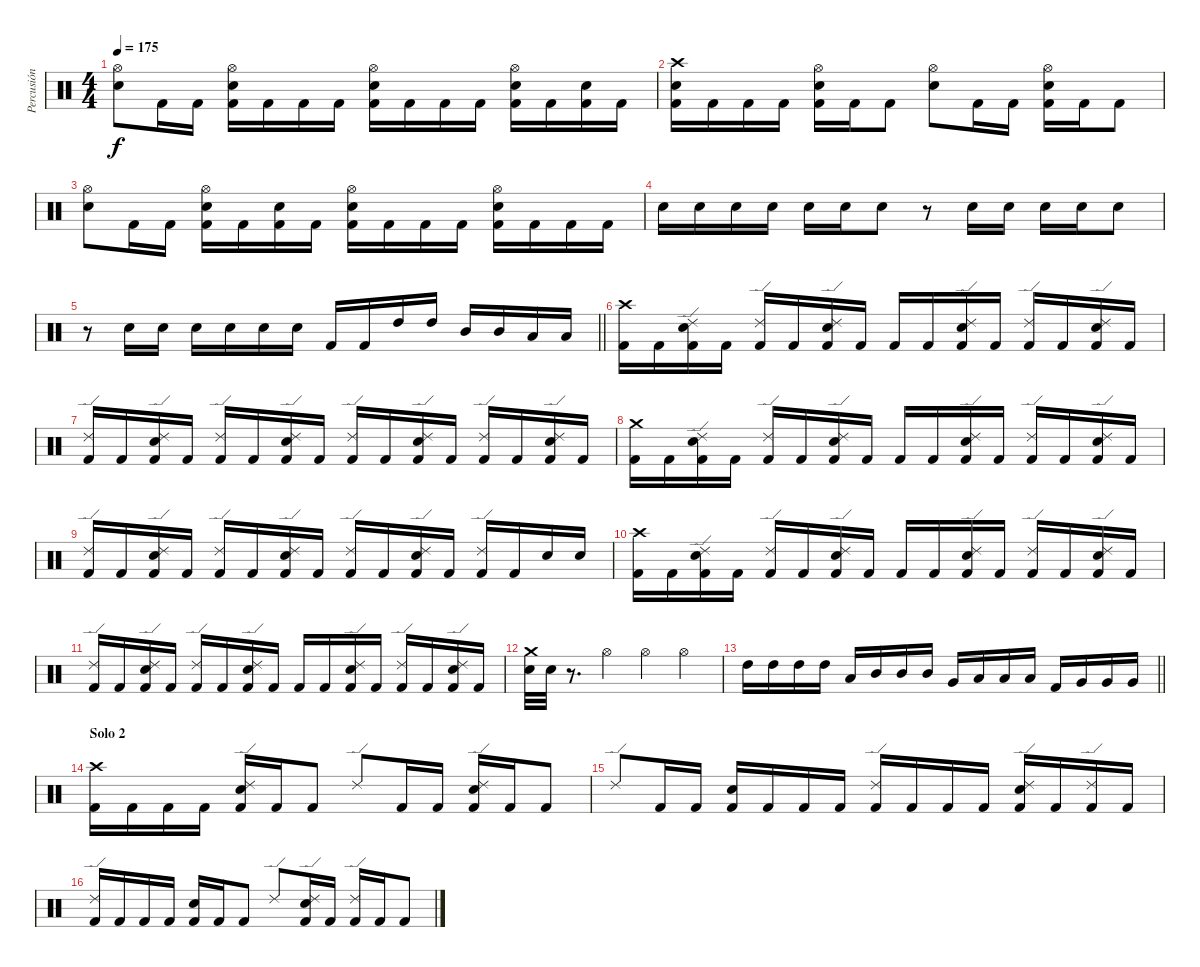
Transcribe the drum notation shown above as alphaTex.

\track ("Percusión" "Percusión") {instrument percussion}
\staff {score}
\articulation defaults
\ts (4 4)
\tempo 175
\clef neutral
\ks c
("Hi-Hat (open)" "Snare (hit) 2").8{dy f} "Kick (hit) 2".16 "Kick (hit) 2".16 ("Hi-Hat (open)" "Snare (hit) 2" "Kick (hit) 2").16 "Kick (hit) 2".16 "Kick (hit) 2".16 "Kick (hit) 2".16 ("Hi-Hat (open)" "Snare (hit) 2" "Kick (hit) 2").16 "Kick (hit) 2".16 "Kick (hit) 2".16 "Kick (hit) 2".16 ("Hi-Hat (open)" "Snare (hit) 2" "Kick (hit) 2").16 "Kick (hit) 2".16 ("Snare (hit) 2" "Kick (hit) 2").16 "Kick (hit) 2".16 |
("Crash high (hit)" "Snare (hit) 2" "Kick (hit) 2").16 "Kick (hit) 2".16 "Kick (hit) 2".16 "Kick (hit) 2".16 ("Hi-Hat (open)" "Snare (hit) 2" "Kick (hit) 2").16 "Kick (hit) 2".16 "Kick (hit) 2".8 ("Hi-Hat (open)" "Snare (hit) 2").8 "Kick (hit) 2".16 "Kick (hit) 2".16 ("Hi-Hat (open)" "Snare (hit) 2" "Kick (hit) 2").16 "Kick (hit) 2".16 "Kick (hit) 2".8 |
("Hi-Hat (open)" "Snare (hit) 2").8 "Kick (hit) 2".16 "Kick (hit) 2".16 ("Hi-Hat (open)" "Snare (hit) 2" "Kick (hit) 2").16 "Kick (hit) 2".16 ("Snare (hit) 2" "Kick (hit) 2").16 "Kick (hit) 2".16 ("Hi-Hat (open)" "Snare (hit) 2" "Kick (hit) 2").16 "Kick (hit) 2".16 "Kick (hit) 2".16 "Kick (hit) 2".16 ("Hi-Hat (open)" "Snare (hit) 2" "Kick (hit) 2").16 "Kick (hit) 2".16 "Kick (hit) 2".16 "Kick (hit) 2".16 |
"Snare (hit) 2".16 "Snare (hit) 2".16 "Snare (hit) 2".16 "Snare (hit) 2".16 "Snare (hit) 2".16 "Snare (hit) 2".16 "Snare (hit) 2".8 r.8 "Snare (hit) 2".16 "Snare (hit) 2".16 "Snare (hit) 2".16 "Snare (hit) 2".16 "Snare (hit) 2".8 |
\barLineRight lightlight
r.8 "Snare (hit) 2".16 "Snare (hit) 2".16 "Snare (hit) 2".16 "Snare (hit) 2".16 "Snare (hit) 2".16 "Snare (hit) 2".16 "Kick (hit) 2".16 "Kick (hit) 2".16 "High Tom (hit)".16 "High Tom (hit)".16 "Mid Tom (hit)".16 "Mid Tom (hit)".16 "Low Tom (hit)".16 "Low Tom (hit)".16 |
\section ("" "")
("Crash high (hit)" "Kick (hit) 2").16 "Kick (hit) 2".16 ("Ride (edge) 2" "Snare (hit) 2" "Kick (hit) 2").16 "Kick (hit) 2".16 ("Ride (edge) 2" "Kick (hit) 2").16 "Kick (hit) 2".16 ("Ride (edge) 2" "Snare (hit) 2" "Kick (hit) 2").16 "Kick (hit) 2".16 "Kick (hit) 2".16 "Kick (hit) 2".16 ("Ride (edge) 2" "Snare (hit) 2" "Kick (hit) 2").16 "Kick (hit) 2".16 ("Ride (edge) 2" "Kick (hit) 2").16 "Kick (hit) 2".16 ("Ride (edge) 2" "Snare (hit) 2" "Kick (hit) 2").16 "Kick (hit) 2".16 |
("Ride (edge) 2" "Kick (hit) 2").16 "Kick (hit) 2".16 ("Ride (edge) 2" "Snare (hit) 2" "Kick (hit) 2").16 "Kick (hit) 2".16 ("Ride (edge) 2" "Kick (hit) 2").16 "Kick (hit) 2".16 ("Ride (edge) 2" "Snare (hit) 2" "Kick (hit) 2").16 "Kick (hit) 2".16 ("Ride (edge) 2" "Kick (hit) 2").16 "Kick (hit) 2".16 ("Ride (edge) 2" "Snare (hit) 2" "Kick (hit) 2").16 "Kick (hit) 2".16 ("Ride (edge) 2" "Kick (hit) 2").16 "Kick (hit) 2".16 ("Ride (edge) 2" "Snare (hit) 2" "Kick (hit) 2").16 "Kick (hit) 2".16 |
("Crash medium (hit)" "Kick (hit) 2").16 "Kick (hit) 2".16 ("Ride (edge) 2" "Snare (hit) 2" "Kick (hit) 2").16 "Kick (hit) 2".16 ("Ride (edge) 2" "Kick (hit) 2").16 "Kick (hit) 2".16 ("Ride (edge) 2" "Snare (hit) 2" "Kick (hit) 2").16 "Kick (hit) 2".16 "Kick (hit) 2".16 "Kick (hit) 2".16 ("Ride (edge) 2" "Snare (hit) 2" "Kick (hit) 2").16 "Kick (hit) 2".16 ("Ride (edge) 2" "Kick (hit) 2").16 "Kick (hit) 2".16 ("Ride (edge) 2" "Snare (hit) 2" "Kick (hit) 2").16 "Kick (hit) 2".16 |
("Ride (edge) 2" "Kick (hit) 2").16 "Kick (hit) 2".16 ("Ride (edge) 2" "Snare (hit) 2" "Kick (hit) 2").16 "Kick (hit) 2".16 ("Ride (edge) 2" "Kick (hit) 2").16 "Kick (hit) 2".16 ("Ride (edge) 2" "Snare (hit) 2" "Kick (hit) 2").16 "Kick (hit) 2".16 ("Ride (edge) 2" "Kick (hit) 2").16 "Kick (hit) 2".16 ("Ride (edge) 2" "Snare (hit) 2" "Kick (hit) 2").16 "Kick (hit) 2".16 ("Ride (edge) 2" "Kick (hit) 2").16 "Kick (hit) 2".16 "Snare (hit) 2".16 "Snare (hit) 2".16 |
("Crash high (hit)" "Kick (hit) 2").16 "Kick (hit) 2".16 ("Ride (edge) 2" "Snare (hit) 2" "Kick (hit) 2").16 "Kick (hit) 2".16 ("Ride (edge) 2" "Kick (hit) 2").16 "Kick (hit) 2".16 ("Ride (edge) 2" "Snare (hit) 2" "Kick (hit) 2").16 "Kick (hit) 2".16 "Kick (hit) 2".16 "Kick (hit) 2".16 ("Ride (edge) 2" "Snare (hit) 2" "Kick (hit) 2").16 "Kick (hit) 2".16 ("Ride (edge) 2" "Kick (hit) 2").16 "Kick (hit) 2".16 ("Ride (edge) 2" "Snare (hit) 2" "Kick (hit) 2").16 "Kick (hit) 2".16 |
("Ride (edge) 2" "Kick (hit) 2").16 "Kick (hit) 2".16 ("Ride (edge) 2" "Snare (hit) 2" "Kick (hit) 2").16 "Kick (hit) 2".16 ("Ride (edge) 2" "Kick (hit) 2").16 "Kick (hit) 2".16 ("Ride (edge) 2" "Snare (hit) 2" "Kick (hit) 2").16 "Kick (hit) 2".16 "Kick (hit) 2".16 "Kick (hit) 2".16 ("Ride (edge) 2" "Snare (hit) 2" "Kick (hit) 2").16 "Kick (hit) 2".16 ("Ride (edge) 2" "Kick (hit) 2").16 "Kick (hit) 2".16 ("Ride (edge) 2" "Snare (hit) 2" "Kick (hit) 2").16 "Kick (hit) 2".16 |
("Crash medium (hit)" "Snare (hit) 2").32 "Snare (hit) 2".32 r.8{d} "Hi-Hat (open)".4 "Hi-Hat (open)".4 "Hi-Hat (open)".4 |
\barLineRight lightlight "High Tom (hit)".16 "High Tom (hit)".16 "High Tom (hit)".16 "High Tom (hit)".16 "Low Tom (hit)".16 "Mid Tom (hit)".16 "Mid Tom (hit)".16 "Mid Tom (hit)".16 "Very Low Tom (hit)".16 "Low Tom (hit)".16 "Low Tom (hit)".16 "Low Tom (hit)".16 "Kick (hit) 2".16 "Very Low Tom (hit)".16 "Very Low Tom (hit)".16 "Very Low Tom (hit)".16
|
\section ("" "Solo 2")
("Crash high (hit)" "Kick (hit) 2").16 "Kick (hit) 2".16 "Kick (hit) 2".16 "Kick (hit) 2".16 ("Ride (edge) 2" "Snare (hit) 2" "Kick (hit) 2").16 "Kick (hit) 2".16 "Kick (hit) 2".8 "Ride (edge) 2".8 "Kick (hit) 2".16 "Kick (hit) 2".16 ("Ride (edge) 2" "Snare (hit) 2" "Kick (hit) 2").16 "Kick (hit) 2".16 "Kick (hit) 2".8 |
"Ride (edge) 2".8 "Kick (hit) 2".16 "Kick (hit) 2".16 ("Snare (hit) 2" "Kick (hit) 2").16 "Kick (hit) 2".16 "Kick (hit) 2".16 "Kick (hit) 2".16 ("Ride (edge) 2" "Kick (hit) 2").16 "Kick (hit) 2".16 "Kick (hit) 2".16 "Kick (hit) 2".16 ("Ride (edge) 2" "Snare (hit) 2" "Kick (hit) 2").16 "Kick (hit) 2".16 ("Ride (edge) 2" "Kick (hit) 2").16 "Kick (hit) 2".16 |
("Ride (edge) 2" "Kick (hit) 2").16 "Kick (hit) 2".16 "Kick (hit) 2".16 "Kick (hit) 2".16 ("Snare (hit) 2" "Kick (hit) 2").16 "Kick (hit) 2".16 "Kick (hit) 2".8 "Ride (edge) 2".8 ("Ride (edge) 2" "Snare (hit) 2" "Kick (hit) 2").16 "Kick (hit) 2".16 ("Ride (edge) 2" "Kick (hit) 2").16 "Kick (hit) 2".16 "Kick (hit) 2".8
